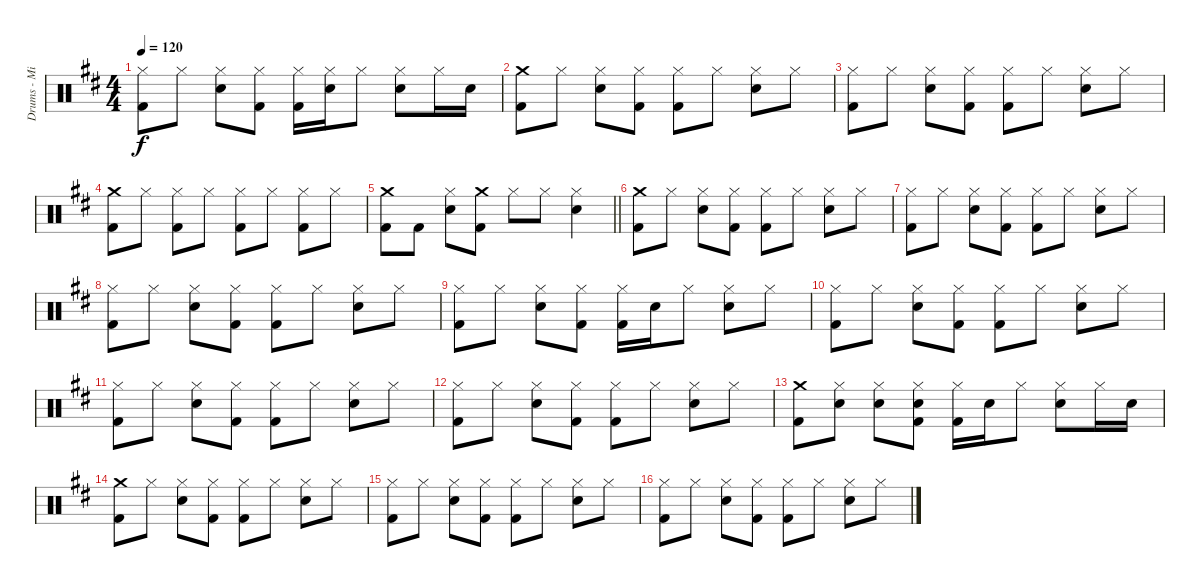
\track ("Drums - Minh-Thu" "Drums - Mi") {instrument percussion}
\staff {score}
\articulation defaults
\ts (4 4)
\tempo 120
\clef neutral
\ks d
("Hi-Hat (closed)" "Kick (hit) 2").8{dy f} "Hi-Hat (closed)".8 ("Hi-Hat (closed)" "Electric Snare (hit)").8 ("Hi-Hat (closed)" "Kick (hit) 2").8 ("Hi-Hat (closed)" "Kick (hit) 2").16 ("Hi-Hat (closed)" "Electric Snare (hit)").16 "Hi-Hat (closed)".8 ("Hi-Hat (closed)" "Electric Snare (hit)").8 "Hi-Hat (closed)".16 "Electric Snare (hit)".16 |
("Crash medium (hit)" "Kick (hit) 2").8 "Hi-Hat (closed)".8 ("Hi-Hat (closed)" "Electric Snare (hit)").8 ("Hi-Hat (closed)" "Kick (hit) 2").8 ("Hi-Hat (closed)" "Kick (hit) 2").8 "Hi-Hat (closed)".8 ("Hi-Hat (closed)" "Electric Snare (hit)").8 "Hi-Hat (closed)".8 |
("Hi-Hat (closed)" "Kick (hit) 2").8 "Hi-Hat (closed)".8 ("Hi-Hat (closed)" "Electric Snare (hit)").8 ("Hi-Hat (closed)" "Kick (hit) 2").8 ("Hi-Hat (closed)" "Kick (hit) 2").8 "Hi-Hat (closed)".8 ("Hi-Hat (closed)" "Electric Snare (hit)").8 "Hi-Hat (closed)".8 |
("Crash medium (hit)" "Kick (hit) 2").8 "Hi-Hat (closed)".8 ("Hi-Hat (closed)" "Kick (hit) 2").8 "Hi-Hat (closed)".8 ("Hi-Hat (closed)" "Kick (hit) 2").8 "Hi-Hat (closed)".8 ("Hi-Hat (closed)" "Kick (hit) 2").8 "Hi-Hat (closed)".8 |
\barLineRight lightlight
("Crash medium (hit)" "Kick (hit) 2").8 "Kick (hit) 2".8 ("Hi-Hat (closed)" "Electric Snare (hit)").8 ("Crash medium (hit)" "Kick (hit) 2").8 "Hi-Hat (closed)".8 "Hi-Hat (closed)".8 ("Hi-Hat (closed)" "Electric Snare (hit)").4 |
("Crash medium (hit)" "Kick (hit) 2").8 "Hi-Hat (closed)".8 ("Hi-Hat (closed)" "Electric Snare (hit)").8 ("Hi-Hat (closed)" "Kick (hit) 2").8 ("Hi-Hat (closed)" "Kick (hit) 2").8 "Hi-Hat (closed)".8 ("Hi-Hat (closed)" "Electric Snare (hit)").8 "Hi-Hat (closed)".8 |
("Hi-Hat (closed)" "Kick (hit) 2").8 "Hi-Hat (closed)".8 ("Hi-Hat (closed)" "Electric Snare (hit)").8 ("Hi-Hat (closed)" "Kick (hit) 2").8 ("Hi-Hat (closed)" "Kick (hit) 2").8 "Hi-Hat (closed)".8 ("Hi-Hat (closed)" "Electric Snare (hit)").8 "Hi-Hat (closed)".8 |
("Hi-Hat (closed)" "Kick (hit) 2").8 "Hi-Hat (closed)".8 ("Hi-Hat (closed)" "Electric Snare (hit)").8 ("Hi-Hat (closed)" "Kick (hit) 2").8 ("Hi-Hat (closed)" "Kick (hit) 2").8 "Hi-Hat (closed)".8 ("Hi-Hat (closed)" "Electric Snare (hit)").8 "Hi-Hat (closed)".8 |
("Hi-Hat (closed)" "Kick (hit) 2").8 "Hi-Hat (closed)".8 ("Hi-Hat (closed)" "Electric Snare (hit)").8 ("Hi-Hat (closed)" "Kick (hit) 2").8 ("Hi-Hat (closed)" "Kick (hit) 2").16 "Electric Snare (hit)".16 "Hi-Hat (closed)".8 ("Hi-Hat (closed)" "Electric Snare (hit)").8 "Hi-Hat (closed)".8 |
("Hi-Hat (closed)" "Kick (hit) 2").8 "Hi-Hat (closed)".8 ("Hi-Hat (closed)" "Electric Snare (hit)").8 ("Hi-Hat (closed)" "Kick (hit) 2").8 ("Hi-Hat (closed)" "Kick (hit) 2").8 "Hi-Hat (closed)".8 ("Hi-Hat (closed)" "Electric Snare (hit)").8 "Hi-Hat (closed)".8 |
("Hi-Hat (closed)" "Kick (hit) 2").8 "Hi-Hat (closed)".8 ("Hi-Hat (closed)" "Electric Snare (hit)").8 ("Hi-Hat (closed)" "Kick (hit) 2").8 ("Hi-Hat (closed)" "Kick (hit) 2").8 "Hi-Hat (closed)".8 ("Hi-Hat (closed)" "Electric Snare (hit)").8 "Hi-Hat (closed)".8 |
("Hi-Hat (closed)" "Kick (hit) 2").8 "Hi-Hat (closed)".8 ("Hi-Hat (closed)" "Electric Snare (hit)").8 ("Hi-Hat (closed)" "Kick (hit) 2").8 ("Hi-Hat (closed)" "Kick (hit) 2").8 "Hi-Hat (closed)".8 ("Hi-Hat (closed)" "Electric Snare (hit)").8 "Hi-Hat (closed)".8 |
("Crash medium (hit)" "Kick (hit) 2").8 ("Hi-Hat (closed)" "Electric Snare (hit)").8 ("Hi-Hat (closed)" "Electric Snare (hit)").8 ("Hi-Hat (closed)" "Electric Snare (hit)" "Kick (hit) 2").8 ("Hi-Hat (closed)" "Kick (hit) 2").16 "Electric Snare (hit)".16 "Hi-Hat (closed)".8 ("Hi-Hat (closed)" "Electric Snare (hit)").8 "Hi-Hat (closed)".16 "Electric Snare (hit)".16 |
("Crash medium (hit)" "Kick (hit) 2").8 "Hi-Hat (closed)".8 ("Hi-Hat (closed)" "Electric Snare (hit)").8 ("Hi-Hat (closed)" "Kick (hit) 2").8 ("Hi-Hat (closed)" "Kick (hit) 2").8 "Hi-Hat (closed)".8 ("Hi-Hat (closed)" "Electric Snare (hit)").8 "Hi-Hat (closed)".8 |
("Hi-Hat (closed)" "Kick (hit) 2").8 "Hi-Hat (closed)".8 ("Hi-Hat (closed)" "Electric Snare (hit)").8 ("Hi-Hat (closed)" "Kick (hit) 2").8 ("Hi-Hat (closed)" "Kick (hit) 2").8 "Hi-Hat (closed)".8 ("Hi-Hat (closed)" "Electric Snare (hit)").8 "Hi-Hat (closed)".8 |
("Hi-Hat (closed)" "Kick (hit) 2").8 "Hi-Hat (closed)".8 ("Hi-Hat (closed)" "Electric Snare (hit)").8 ("Hi-Hat (closed)" "Kick (hit) 2").8 ("Hi-Hat (closed)" "Kick (hit) 2").8 "Hi-Hat (closed)".8 ("Hi-Hat (closed)" "Electric Snare (hit)").8 "Hi-Hat (closed)".8
